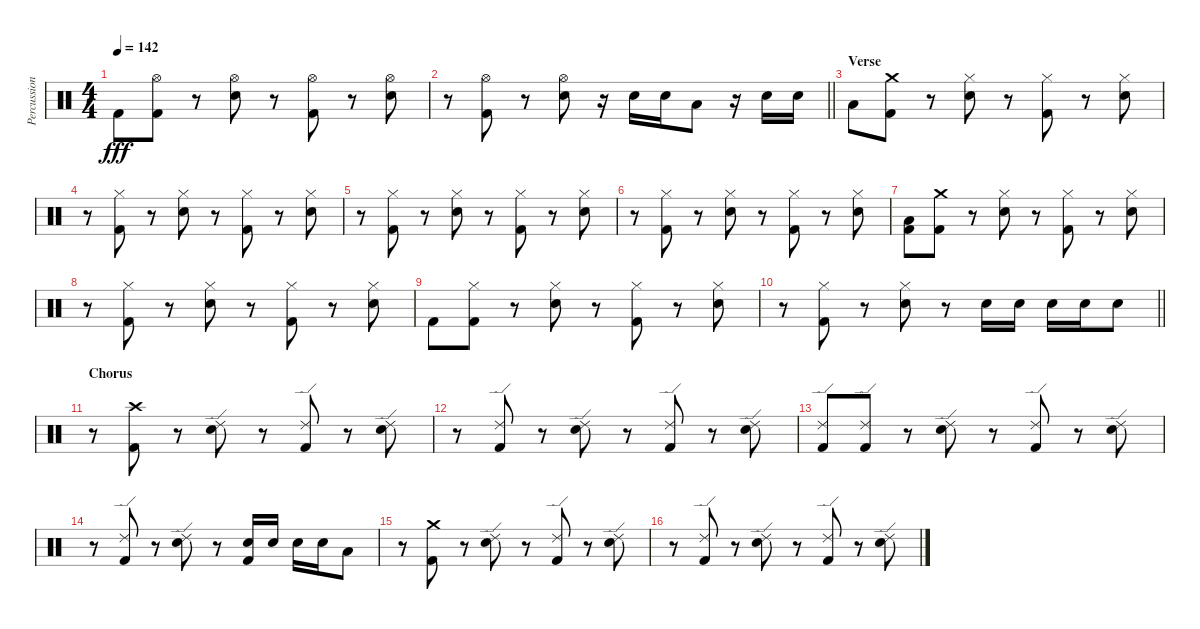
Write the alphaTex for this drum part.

\track ("Percussion" "Percussion") {instrument percussion}
\staff {score}
\articulation defaults
\ts (4 4)
\tempo 142
\clef neutral
\ks c "Kick (hit) 2".8{dy fff}
("Hi-Hat (open)" "Kick (hit) 2").8 r.8 ("Hi-Hat (open)" "Electric Snare (hit)").8 r.8 ("Hi-Hat (open)" "Kick (hit) 2").8 r.8 ("Hi-Hat (open)" "Electric Snare (hit)").8 |
\barLineRight lightlight
r.8 ("Hi-Hat (open)" "Kick (hit) 2").8 r.8 ("Hi-Hat (open)" "Electric Snare (hit)").8 r.16 "Electric Snare (hit)".16 "Electric Snare (hit)".16 "Low Tom (hit)".8 r.16 "Electric Snare (hit)".16 "Electric Snare (hit)".16 |
\section ("" "Verse")
"Low Tom (hit)".8 ("Crash medium (hit)" "Kick (hit) 2").8 r.8 ("Hi-Hat (closed)" "Electric Snare (hit)").8 r.8 ("Hi-Hat (closed)" "Kick (hit) 2").8 r.8 ("Hi-Hat (closed)" "Electric Snare (hit)").8 |
r.8 ("Hi-Hat (closed)" "Kick (hit) 2").8 r.8 ("Hi-Hat (closed)" "Electric Snare (hit)").8 r.8 ("Hi-Hat (closed)" "Kick (hit) 2").8 r.8 ("Hi-Hat (closed)" "Electric Snare (hit)").8 |
r.8 ("Hi-Hat (closed)" "Kick (hit) 2").8 r.8 ("Hi-Hat (closed)" "Electric Snare (hit)").8 r.8 ("Hi-Hat (closed)" "Kick (hit) 2").8 r.8 ("Hi-Hat (closed)" "Electric Snare (hit)").8 |
r.8 ("Hi-Hat (closed)" "Kick (hit) 2").8 r.8 ("Hi-Hat (closed)" "Electric Snare (hit)").8 r.8 ("Hi-Hat (closed)" "Kick (hit) 2").8 r.8 ("Hi-Hat (closed)" "Electric Snare (hit)").8 |
("Low Tom (hit)" "Kick (hit) 2").8 ("Crash medium (hit)" "Kick (hit) 2").8 r.8 ("Hi-Hat (closed)" "Electric Snare (hit)").8 r.8 ("Hi-Hat (closed)" "Kick (hit) 2").8 r.8 ("Hi-Hat (closed)" "Electric Snare (hit)").8 |
r.8 ("Hi-Hat (closed)" "Kick (hit) 2").8 r.8 ("Hi-Hat (closed)" "Electric Snare (hit)").8 r.8 ("Hi-Hat (closed)" "Kick (hit) 2").8 r.8 ("Hi-Hat (closed)" "Electric Snare (hit)").8 |
"Kick (hit) 2".8 ("Hi-Hat (closed)" "Kick (hit) 2").8 r.8 ("Hi-Hat (closed)" "Electric Snare (hit)").8 r.8 ("Hi-Hat (closed)" "Kick (hit) 2").8 r.8 ("Hi-Hat (closed)" "Electric Snare (hit)").8 |
\barLineRight lightlight
r.8 ("Hi-Hat (closed)" "Kick (hit) 2").8 r.8 ("Hi-Hat (closed)" "Electric Snare (hit)").8 r.8 "Electric Snare (hit)".16 "Electric Snare (hit)".16 "Electric Snare (hit)".16 "Electric Snare (hit)".16 "Electric Snare (hit)".8 |
\section ("" "Chorus")
r.8 ("Crash high (hit)" "Kick (hit) 2").8 r.8 ("Ride (edge) 2" "Electric Snare (hit)").8 r.8 ("Ride (edge) 2" "Kick (hit) 2").8 r.8 ("Ride (edge) 2" "Electric Snare (hit)").8 |
r.8 ("Ride (edge) 2" "Kick (hit) 2").8 r.8 ("Ride (edge) 2" "Electric Snare (hit)").8 r.8 ("Ride (edge) 2" "Kick (hit) 2").8 r.8 ("Ride (edge) 2" "Electric Snare (hit)").8 |
("Ride (edge) 2" "Kick (hit) 2").8 ("Ride (edge) 2" "Kick (hit) 2").8 r.8 ("Ride (edge) 2" "Electric Snare (hit)").8 r.8 ("Ride (edge) 2" "Kick (hit) 2").8 r.8 ("Ride (edge) 2" "Electric Snare (hit)").8 |
r.8 ("Ride (edge) 2" "Kick (hit) 2").8 r.8 ("Ride (edge) 2" "Electric Snare (hit)").8 r.8 ("Electric Snare (hit)" "Kick (hit) 2").16 "Electric Snare (hit)".16 "Electric Snare (hit)".16 "Electric Snare (hit)".16 "Low Tom (hit)".8 |
r.8 ("Crash medium (hit)" "Kick (hit) 2").8 r.8 ("Ride (edge) 2" "Electric Snare (hit)").8 r.8 ("Ride (edge) 2" "Kick (hit) 2").8 r.8 ("Ride (edge) 2" "Electric Snare (hit)").8 |
r.8 ("Ride (edge) 2" "Kick (hit) 2").8 r.8 ("Ride (edge) 2" "Electric Snare (hit)").8 r.8 ("Ride (edge) 2" "Kick (hit) 2").8 r.8 ("Ride (edge) 2" "Electric Snare (hit)").8
